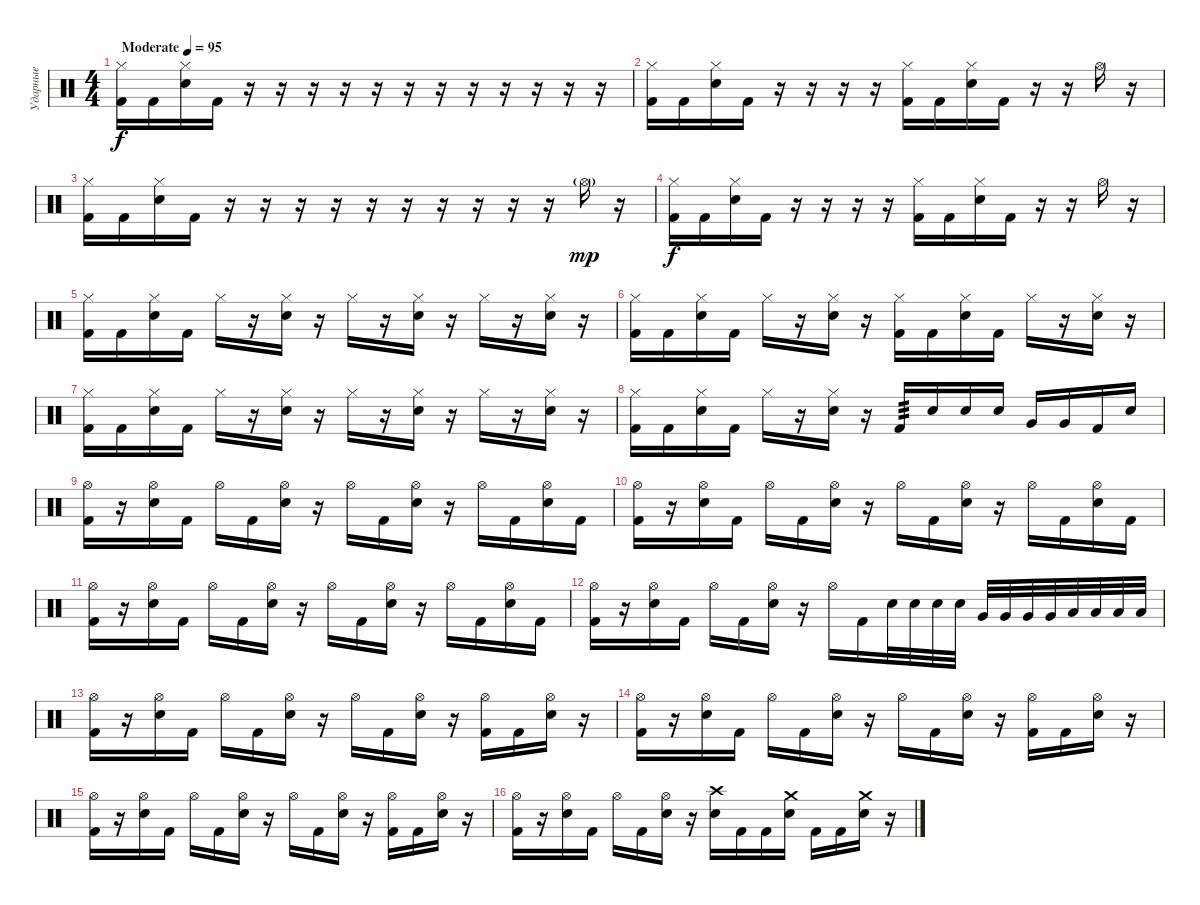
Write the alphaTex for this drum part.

\track ("Ударные" "Ударные") {instrument percussion}
\staff {score}
\articulation defaults
\ts (4 4)
\tempo (95 "Moderate")
\clef neutral
\ks c
("Hi-Hat (closed)" "Kick (hit) 2").16{dy f} "Kick (hit) 2".16 ("Hi-Hat (closed)" "Electric Snare (hit)").16 "Kick (hit) 2".16 r.16 r.16 r.16 r.16 r.16 r.16 r.16 r.16 r.16 r.16 r.16 r.16 |
("Hi-Hat (closed)" "Kick (hit) 2").16 "Kick (hit) 2".16 ("Hi-Hat (closed)" "Electric Snare (hit)").16 "Kick (hit) 2".16 r.16 r.16 r.16 r.16 ("Hi-Hat (closed)" "Kick (hit) 2").16 "Kick (hit) 2".16 ("Hi-Hat (closed)" "Electric Snare (hit)").16 "Kick (hit) 2".16 r.16 r.16 "Hi-Hat (open)".16 r.16 |
("Hi-Hat (closed)" "Kick (hit) 2").16 "Kick (hit) 2".16 ("Hi-Hat (closed)" "Electric Snare (hit)").16 "Kick (hit) 2".16 r.16 r.16 r.16 r.16 r.16 r.16 r.16 r.16 r.16 r.16 "Hi-Hat (open)"{g}.16{dy mp} r.16 |
("Hi-Hat (closed)" "Kick (hit) 2").16{dy f} "Kick (hit) 2".16 ("Hi-Hat (closed)" "Electric Snare (hit)").16 "Kick (hit) 2".16 r.16 r.16 r.16 r.16 ("Hi-Hat (closed)" "Kick (hit) 2").16 "Kick (hit) 2".16 ("Hi-Hat (closed)" "Electric Snare (hit)").16 "Kick (hit) 2".16 r.16 r.16 "Hi-Hat (open)".16 r.16 |
("Hi-Hat (closed)" "Kick (hit) 2").16 "Kick (hit) 2".16 ("Hi-Hat (closed)" "Electric Snare (hit)").16 "Kick (hit) 2".16 "Hi-Hat (closed)".16 r.16 ("Hi-Hat (closed)" "Electric Snare (hit)").16 r.16 "Hi-Hat (closed)".16 r.16 ("Hi-Hat (closed)" "Electric Snare (hit)").16 r.16 "Hi-Hat (closed)".16 r.16 ("Hi-Hat (closed)" "Electric Snare (hit)").16 r.16 |
("Hi-Hat (closed)" "Kick (hit) 2").16 "Kick (hit) 2".16 ("Hi-Hat (closed)" "Electric Snare (hit)").16 "Kick (hit) 2".16 "Hi-Hat (closed)".16 r.16 ("Hi-Hat (closed)" "Electric Snare (hit)").16 r.16 ("Hi-Hat (closed)" "Kick (hit) 2").16 "Kick (hit) 2".16 ("Hi-Hat (closed)" "Electric Snare (hit)").16 "Kick (hit) 2".16 "Hi-Hat (closed)".16 r.16 ("Hi-Hat (closed)" "Electric Snare (hit)").16 r.16 |
("Hi-Hat (closed)" "Kick (hit) 2").16 "Kick (hit) 2".16 ("Hi-Hat (closed)" "Electric Snare (hit)").16 "Kick (hit) 2".16 "Hi-Hat (closed)".16 r.16 ("Hi-Hat (closed)" "Electric Snare (hit)").16 r.16 "Hi-Hat (closed)".16 r.16 ("Hi-Hat (closed)" "Electric Snare (hit)").16 r.16 "Hi-Hat (closed)".16 r.16 ("Hi-Hat (closed)" "Electric Snare (hit)").16 r.16 |
("Hi-Hat (closed)" "Kick (hit) 2").16 "Kick (hit) 2".16 ("Hi-Hat (closed)" "Electric Snare (hit)").16 "Kick (hit) 2".16 "Hi-Hat (closed)".16 r.16 ("Hi-Hat (closed)" "Electric Snare (hit)").16 r.16 "Kick (hit) 2".16{tp 3} "Electric Snare (hit)".16 "Electric Snare (hit)".16 "Electric Snare (hit)".16 "Very Low Tom (hit)".16 "Very Low Tom (hit)".16 "Kick (hit) 2".16 "Electric Snare (hit)".16 |
("Hi-Hat (open)" "Kick (hit) 2").16 r.16 ("Hi-Hat (open)" "Electric Snare (hit)").16 "Kick (hit) 2".16 "Hi-Hat (open)".16 "Kick (hit) 2".16 ("Hi-Hat (open)" "Electric Snare (hit)").16 r.16 "Hi-Hat (open)".16 "Kick (hit) 2".16 ("Hi-Hat (open)" "Electric Snare (hit)").16 r.16 "Hi-Hat (open)".16 "Kick (hit) 2".16 ("Hi-Hat (open)" "Electric Snare (hit)").16 "Kick (hit) 2".16 |
("Hi-Hat (open)" "Kick (hit) 2").16 r.16 ("Hi-Hat (open)" "Electric Snare (hit)").16 "Kick (hit) 2".16 "Hi-Hat (open)".16 "Kick (hit) 2".16 ("Hi-Hat (open)" "Electric Snare (hit)").16 r.16 "Hi-Hat (open)".16 "Kick (hit) 2".16 ("Hi-Hat (open)" "Electric Snare (hit)").16 r.16 "Hi-Hat (open)".16 "Kick (hit) 2".16 ("Hi-Hat (open)" "Electric Snare (hit)").16 "Kick (hit) 2".16 |
("Hi-Hat (open)" "Kick (hit) 2").16 r.16 ("Hi-Hat (open)" "Electric Snare (hit)").16 "Kick (hit) 2".16 "Hi-Hat (open)".16 "Kick (hit) 2".16 ("Hi-Hat (open)" "Electric Snare (hit)").16 r.16 "Hi-Hat (open)".16 "Kick (hit) 2".16 ("Hi-Hat (open)" "Electric Snare (hit)").16 r.16 "Hi-Hat (open)".16 "Kick (hit) 2".16 ("Hi-Hat (open)" "Electric Snare (hit)").16 "Kick (hit) 2".16 |
("Hi-Hat (open)" "Kick (hit) 2").16 r.16 ("Hi-Hat (open)" "Electric Snare (hit)").16 "Kick (hit) 2".16 "Hi-Hat (open)".16 "Kick (hit) 2".16 ("Hi-Hat (open)" "Electric Snare (hit)").16 r.16 "Hi-Hat (open)".16 "Kick (hit) 2".16 "Electric Snare (hit)".32 "Electric Snare (hit)".32 "Electric Snare (hit)".32 "Electric Snare (hit)".32 "Very Low Tom (hit)".32 "Very Low Tom (hit)".32 "Very Low Tom (hit)".32 "Very Low Tom (hit)".32 "Low Floor Tom (hit)".32 "Low Floor Tom (hit)".32 "Low Floor Tom (hit)".32 "Low Floor Tom (hit)".32 |
("Hi-Hat (open)" "Kick (hit) 2").16 r.16 ("Hi-Hat (open)" "Electric Snare (hit)").16 "Kick (hit) 2".16 "Hi-Hat (open)".16 "Kick (hit) 2".16 ("Hi-Hat (open)" "Electric Snare (hit)").16 r.16 "Hi-Hat (open)".16 "Kick (hit) 2".16 ("Hi-Hat (open)" "Electric Snare (hit)").16 r.16 ("Hi-Hat (open)" "Kick (hit) 2").16 "Kick (hit) 2".16 ("Hi-Hat (open)" "Electric Snare (hit)").16 r.16 |
("Hi-Hat (open)" "Kick (hit) 2").16 r.16 ("Hi-Hat (open)" "Electric Snare (hit)").16 "Kick (hit) 2".16 "Hi-Hat (open)".16 "Kick (hit) 2".16 ("Hi-Hat (open)" "Electric Snare (hit)").16 r.16 "Hi-Hat (open)".16 "Kick (hit) 2".16 ("Hi-Hat (open)" "Electric Snare (hit)").16 r.16 ("Hi-Hat (open)" "Kick (hit) 2").16 "Kick (hit) 2".16 ("Hi-Hat (open)" "Electric Snare (hit)").16 r.16 |
("Hi-Hat (open)" "Kick (hit) 2").16 r.16 ("Hi-Hat (open)" "Electric Snare (hit)").16 "Kick (hit) 2".16 "Hi-Hat (open)".16 "Kick (hit) 2".16 ("Hi-Hat (open)" "Electric Snare (hit)").16 r.16 "Hi-Hat (open)".16 "Kick (hit) 2".16 ("Hi-Hat (open)" "Electric Snare (hit)").16 r.16 ("Hi-Hat (open)" "Kick (hit) 2").16 "Kick (hit) 2".16 ("Hi-Hat (open)" "Electric Snare (hit)").16 r.16 |
("Hi-Hat (open)" "Kick (hit) 2").16 r.16 ("Hi-Hat (open)" "Electric Snare (hit)").16 "Kick (hit) 2".16 "Hi-Hat (open)".16 "Kick (hit) 2".16 ("Hi-Hat (open)" "Electric Snare (hit)").16 r.16 ("Crash high (hit)" "Electric Snare (hit)").16 "Kick (hit) 2".16 "Kick (hit) 2".16 ("Crash medium (hit)" "Electric Snare (hit)").16 "Kick (hit) 2".16 "Kick (hit) 2".16 ("Crash medium (hit)" "Electric Snare (hit)").16 r.16
